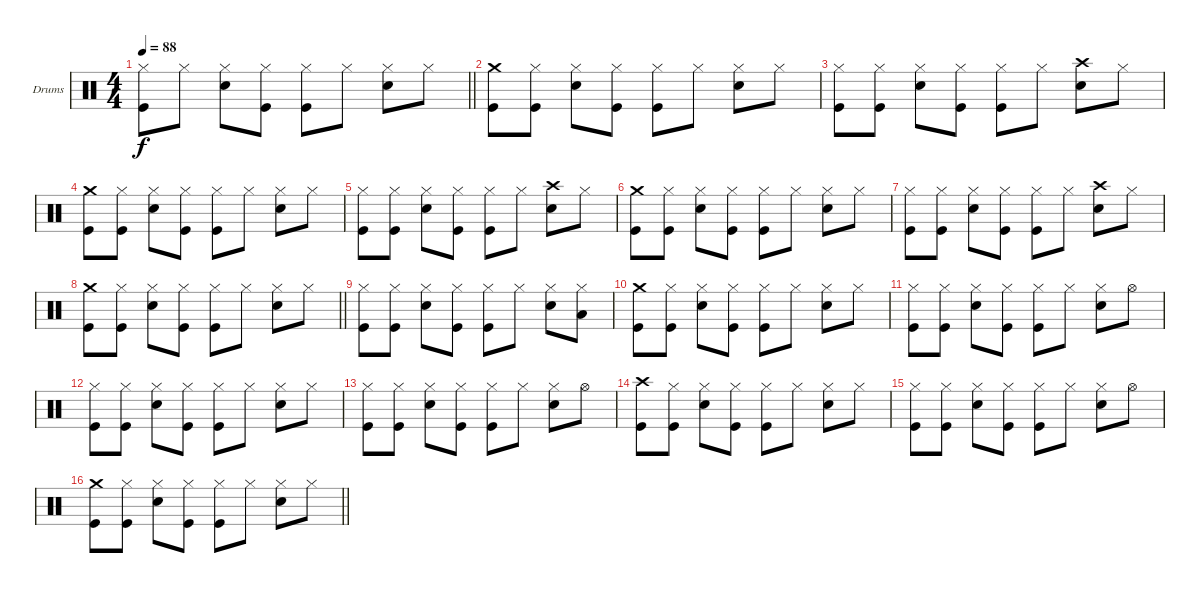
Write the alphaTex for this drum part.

\bracketExtendMode groupsimilarinstruments
\firstSystemTrackNameOrientation horizontal
\otherSystemsTrackNameOrientation horizontal
\track ("Drumkit" "Drums") {instrument percussion}
\staff {score}
\articulation defaults
\ts (4 4)
\tempo 88
\clef neutral
\barLineRight lightlight
\ks c
("Kick (hit)" "Hi-Hat (closed)").8{dy f} "Hi-Hat (closed)".8 ("Snare (hit) 2" "Hi-Hat (closed)").8 ("Kick (hit)" "Hi-Hat (closed)").8 ("Kick (hit)" "Hi-Hat (closed)").8 "Hi-Hat (closed)".8 ("Snare (hit) 2" "Hi-Hat (closed)").8 "Hi-Hat (closed)".8 |
("Kick (hit)" "Crash medium (hit)").8 ("Kick (hit)" "Hi-Hat (closed)").8 ("Snare (hit) 2" "Hi-Hat (closed)").8 ("Kick (hit)" "Hi-Hat (closed)").8 ("Kick (hit)" "Hi-Hat (closed)").8 "Hi-Hat (closed)".8 ("Snare (hit) 2" "Hi-Hat (closed)").8 "Hi-Hat (closed)".8 |
("Kick (hit)" "Hi-Hat (closed)").8 ("Kick (hit)" "Hi-Hat (closed)").8 ("Snare (hit) 2" "Hi-Hat (closed)").8 ("Kick (hit)" "Hi-Hat (closed)").8 ("Kick (hit)" "Hi-Hat (closed)").8 "Hi-Hat (closed)".8 ("Snare (hit) 2" "Crash high (hit)").8 "Hi-Hat (closed)".8 |
("Kick (hit)" "Crash medium (hit)").8 ("Kick (hit)" "Hi-Hat (closed)").8 ("Snare (hit) 2" "Hi-Hat (closed)").8 ("Kick (hit)" "Hi-Hat (closed)").8 ("Kick (hit)" "Hi-Hat (closed)").8 "Hi-Hat (closed)".8 ("Snare (hit) 2" "Hi-Hat (closed)").8 "Hi-Hat (closed)".8 |
("Kick (hit)" "Hi-Hat (closed)").8 ("Kick (hit)" "Hi-Hat (closed)").8 ("Snare (hit) 2" "Hi-Hat (closed)").8 ("Kick (hit)" "Hi-Hat (closed)").8 ("Kick (hit)" "Hi-Hat (closed)").8 "Hi-Hat (closed)".8 ("Snare (hit) 2" "Crash high (hit)").8 "Hi-Hat (closed)".8 |
("Kick (hit)" "Crash medium (hit)").8 ("Kick (hit)" "Hi-Hat (closed)").8 ("Snare (hit) 2" "Hi-Hat (closed)").8 ("Kick (hit)" "Hi-Hat (closed)").8 ("Kick (hit)" "Hi-Hat (closed)").8 "Hi-Hat (closed)".8 ("Snare (hit) 2" "Hi-Hat (closed)").8 "Hi-Hat (closed)".8 |
("Kick (hit)" "Hi-Hat (closed)").8 ("Kick (hit)" "Hi-Hat (closed)").8 ("Snare (hit) 2" "Hi-Hat (closed)").8 ("Kick (hit)" "Hi-Hat (closed)").8 ("Kick (hit)" "Hi-Hat (closed)").8 "Hi-Hat (closed)".8 ("Snare (hit) 2" "Crash high (hit)").8 "Hi-Hat (closed)".8 |
\barLineRight lightlight
("Kick (hit)" "Crash medium (hit)").8 ("Kick (hit)" "Hi-Hat (closed)").8 ("Snare (hit) 2" "Hi-Hat (closed)").8 ("Kick (hit)" "Hi-Hat (closed)").8 ("Kick (hit)" "Hi-Hat (closed)").8 "Hi-Hat (closed)".8 ("Snare (hit) 2" "Hi-Hat (closed)").8 "Hi-Hat (closed)".8 |
("Kick (hit)" "Hi-Hat (closed)").8 ("Kick (hit)" "Hi-Hat (closed)").8 ("Snare (hit) 2" "Hi-Hat (closed)").8 ("Kick (hit)" "Hi-Hat (closed)").8 ("Kick (hit)" "Hi-Hat (closed)").8 "Hi-Hat (closed)".8 ("Snare (hit) 2" "Hi-Hat (closed)").8 ("Low Tom (hit)" "Hi-Hat (closed)").8 |
("Kick (hit)" "Crash medium (hit)").8 ("Kick (hit)" "Hi-Hat (closed)").8 ("Snare (hit) 2" "Hi-Hat (closed)").8 ("Kick (hit)" "Hi-Hat (closed)").8 ("Kick (hit)" "Hi-Hat (closed)").8 "Hi-Hat (closed)".8 ("Snare (hit) 2" "Hi-Hat (closed)").8 "Hi-Hat (closed)".8 |
("Kick (hit)" "Hi-Hat (closed)").8 ("Kick (hit)" "Hi-Hat (closed)").8 ("Snare (hit) 2" "Hi-Hat (closed)").8 ("Kick (hit)" "Hi-Hat (closed)").8 ("Kick (hit)" "Hi-Hat (closed)").8 "Hi-Hat (closed)".8 ("Snare (hit) 2" "Hi-Hat (closed)").8 "Hi-Hat (open)".8 |
("Kick (hit)" "Hi-Hat (closed)").8 ("Kick (hit)" "Hi-Hat (closed)").8 ("Snare (hit) 2" "Hi-Hat (closed)").8 ("Kick (hit)" "Hi-Hat (closed)").8 ("Kick (hit)" "Hi-Hat (closed)").8 "Hi-Hat (closed)".8 ("Snare (hit) 2" "Hi-Hat (closed)").8 "Hi-Hat (closed)".8 |
("Kick (hit)" "Hi-Hat (closed)").8 ("Kick (hit)" "Hi-Hat (closed)").8 ("Snare (hit) 2" "Hi-Hat (closed)").8 ("Kick (hit)" "Hi-Hat (closed)").8 ("Kick (hit)" "Hi-Hat (closed)").8 "Hi-Hat (closed)".8 ("Snare (hit) 2" "Hi-Hat (closed)").8 "Hi-Hat (open)".8 |
("Kick (hit)" "Crash high (hit)").8 ("Kick (hit)" "Hi-Hat (closed)").8 ("Snare (hit) 2" "Hi-Hat (closed)").8 ("Kick (hit)" "Hi-Hat (closed)").8 ("Kick (hit)" "Hi-Hat (closed)").8 "Hi-Hat (closed)".8 ("Snare (hit) 2" "Hi-Hat (closed)").8 "Hi-Hat (closed)".8 |
("Kick (hit)" "Hi-Hat (closed)").8 ("Kick (hit)" "Hi-Hat (closed)").8 ("Snare (hit) 2" "Hi-Hat (closed)").8 ("Kick (hit)" "Hi-Hat (closed)").8 ("Kick (hit)" "Hi-Hat (closed)").8 "Hi-Hat (closed)".8 ("Snare (hit) 2" "Hi-Hat (closed)").8 "Hi-Hat (open)".8 |
\barLineRight lightlight
("Kick (hit)" "Crash medium (hit)").8 ("Kick (hit)" "Hi-Hat (closed)").8 ("Snare (hit) 2" "Hi-Hat (closed)").8 ("Kick (hit)" "Hi-Hat (closed)").8 ("Kick (hit)" "Hi-Hat (closed)").8 "Hi-Hat (closed)".8 ("Snare (hit) 2" "Hi-Hat (closed)").8 "Hi-Hat (closed)".8
